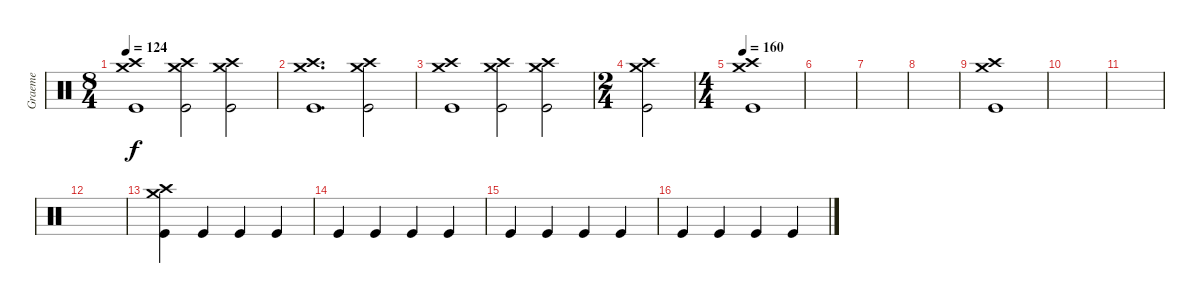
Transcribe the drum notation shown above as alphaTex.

\track ("Graeme" "Graeme") {instrument percussion}
\staff {score}
\articulation defaults
\ts (8 4)
\tempo 124
\clef neutral
\ks c
("Crash medium (hit)" "Crash high (hit)" "Kick (hit)").1{dy f} ("Crash medium (hit)" "Crash high (hit)" "Kick (hit)").2 ("Crash medium (hit)" "Crash high (hit)" "Kick (hit)").2 |
("Crash medium (hit)" "Crash high (hit)" "Kick (hit)").1{d} ("Crash medium (hit)" "Crash high (hit)" "Kick (hit)").2 |
("Crash medium (hit)" "Crash high (hit)" "Kick (hit)").1 ("Crash medium (hit)" "Crash high (hit)" "Kick (hit)").2 ("Crash medium (hit)" "Crash high (hit)" "Kick (hit)").2 |
\ts (2 4)
("Crash medium (hit)" "Crash high (hit)" "Kick (hit)").2 |
\ts (4 4)
\tempo 160
("Crash medium (hit)" "Crash high (hit)" "Kick (hit)").1 |
|
|
|
("Crash medium (hit)" "Crash high (hit)" "Kick (hit)").1 |
|
|
|
("Crash medium (hit)" "Crash high (hit)" "Kick (hit)").4 "Kick (hit)".4 "Kick (hit)".4 "Kick (hit)".4 |
"Kick (hit)".4 "Kick (hit)".4 "Kick (hit)".4 "Kick (hit)".4 |
"Kick (hit)".4 "Kick (hit)".4 "Kick (hit)".4 "Kick (hit)".4 |
"Kick (hit)".4 "Kick (hit)".4 "Kick (hit)".4 "Kick (hit)".4
